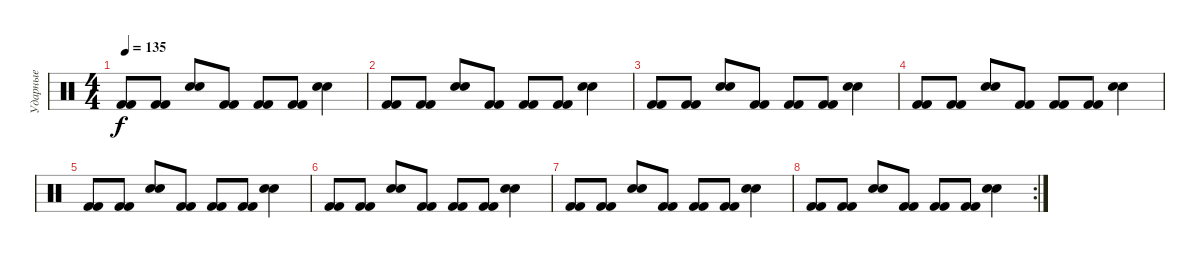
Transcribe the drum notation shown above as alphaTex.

\track ("Ударные" "Ударные") {instrument percussion}
\staff {score}
\articulation defaults
\ts (4 4)
\tempo 135
\clef neutral
\ks c
("Kick (hit) 2" "Kick (hit) 2").8{dy f} ("Kick (hit) 2" "Kick (hit) 2").8 ("Snare (hit) 2" "Snare (hit) 2").8 ("Kick (hit) 2" "Kick (hit) 2").8 ("Kick (hit) 2" "Kick (hit) 2").8 ("Kick (hit) 2" "Kick (hit) 2").8 ("Snare (hit) 2" "Snare (hit) 2").4 |
("Kick (hit) 2" "Kick (hit) 2").8 ("Kick (hit) 2" "Kick (hit) 2").8 ("Snare (hit) 2" "Snare (hit) 2").8 ("Kick (hit) 2" "Kick (hit) 2").8 ("Kick (hit) 2" "Kick (hit) 2").8 ("Kick (hit) 2" "Kick (hit) 2").8 ("Snare (hit) 2" "Snare (hit) 2").4 |
("Kick (hit) 2" "Kick (hit) 2").8 ("Kick (hit) 2" "Kick (hit) 2").8 ("Snare (hit) 2" "Snare (hit) 2").8 ("Kick (hit) 2" "Kick (hit) 2").8 ("Kick (hit) 2" "Kick (hit) 2").8 ("Kick (hit) 2" "Kick (hit) 2").8 ("Snare (hit) 2" "Snare (hit) 2").4 |
("Kick (hit) 2" "Kick (hit) 2").8 ("Kick (hit) 2" "Kick (hit) 2").8 ("Snare (hit) 2" "Snare (hit) 2").8 ("Kick (hit) 2" "Kick (hit) 2").8 ("Kick (hit) 2" "Kick (hit) 2").8 ("Kick (hit) 2" "Kick (hit) 2").8 ("Snare (hit) 2" "Snare (hit) 2").4 |
("Kick (hit) 2" "Kick (hit) 2").8 ("Kick (hit) 2" "Kick (hit) 2").8 ("Snare (hit) 2" "Snare (hit) 2").8 ("Kick (hit) 2" "Kick (hit) 2").8 ("Kick (hit) 2" "Kick (hit) 2").8 ("Kick (hit) 2" "Kick (hit) 2").8 ("Snare (hit) 2" "Snare (hit) 2").4 |
("Kick (hit) 2" "Kick (hit) 2").8 ("Kick (hit) 2" "Kick (hit) 2").8 ("Snare (hit) 2" "Snare (hit) 2").8 ("Kick (hit) 2" "Kick (hit) 2").8 ("Kick (hit) 2" "Kick (hit) 2").8 ("Kick (hit) 2" "Kick (hit) 2").8 ("Snare (hit) 2" "Snare (hit) 2").4 |
("Kick (hit) 2" "Kick (hit) 2").8 ("Kick (hit) 2" "Kick (hit) 2").8 ("Snare (hit) 2" "Snare (hit) 2").8 ("Kick (hit) 2" "Kick (hit) 2").8 ("Kick (hit) 2" "Kick (hit) 2").8 ("Kick (hit) 2" "Kick (hit) 2").8 ("Snare (hit) 2" "Snare (hit) 2").4 |
\rc 2
("Kick (hit) 2" "Kick (hit) 2").8 ("Kick (hit) 2" "Kick (hit) 2").8 ("Snare (hit) 2" "Snare (hit) 2").8 ("Kick (hit) 2" "Kick (hit) 2").8 ("Kick (hit) 2" "Kick (hit) 2").8 ("Kick (hit) 2" "Kick (hit) 2").8 ("Snare (hit) 2" "Snare (hit) 2").4
